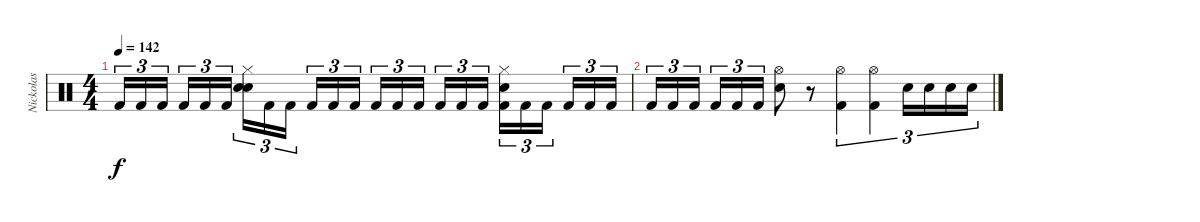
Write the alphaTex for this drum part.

\track ("Nickolas " "Nickolas ") {instrument percussion}
\staff {score}
\articulation defaults
\ts (4 4)
\tempo 142
\clef neutral
\ks c "Kick (hit) 2".16{tu (3 2) dy f} "Kick (hit) 2".16{tu (3 2)} "Kick (hit) 2".16{tu (3 2)} "Kick (hit) 2".16{tu (3 2)} "Kick (hit) 2".16{tu (3 2)} "Kick (hit) 2".16{tu (3 2)}
("Snare (hit) 2" "Snare (hit) 2" "Hi-Hat (closed)").16{tu (3 2)} "Kick (hit) 2".16{tu (3 2)} "Kick (hit) 2".16{tu (3 2)} "Kick (hit) 2".16{tu (3 2)} "Kick (hit) 2".16{tu (3 2)} "Kick (hit) 2".16{tu (3 2)} "Kick (hit) 2".16{tu (3 2)} "Kick (hit) 2".16{tu (3 2)} "Kick (hit) 2".16{tu (3 2)} "Kick (hit) 2".16{tu (3 2)} "Kick (hit) 2".16{tu (3 2)} "Kick (hit) 2".16{tu (3 2)} ("Kick (hit) 2" "Snare (hit) 2" "Hi-Hat (closed)").16{tu (3 2)} "Kick (hit) 2".16{tu (3 2)} "Kick (hit) 2".16{tu (3 2)} "Kick (hit) 2".16{tu (3 2)} "Kick (hit) 2".16{tu (3 2)} "Kick (hit) 2".16{tu (3 2)} |
"Kick (hit) 2".16{tu (3 2)} "Kick (hit) 2".16{tu (3 2)} "Kick (hit) 2".16{tu (3 2)} "Kick (hit) 2".16{tu (3 2)} "Kick (hit) 2".16{tu (3 2)} "Kick (hit) 2".16{tu (3 2)} ("Hi-Hat (open)" "Snare (hit) 2").8 r.8 ("Kick (hit) 2" "Hi-Hat (open)").4{tu (3 2)} ("Kick (hit) 2" "Hi-Hat (open)").4{tu (3 2)} "Snare (hit) 2".16{tu (3 2)} "Snare (hit) 2".16{tu (3 2)} "Snare (hit) 2".16{tu (3 2)} "Snare (hit) 2".16{tu (3 2)}
